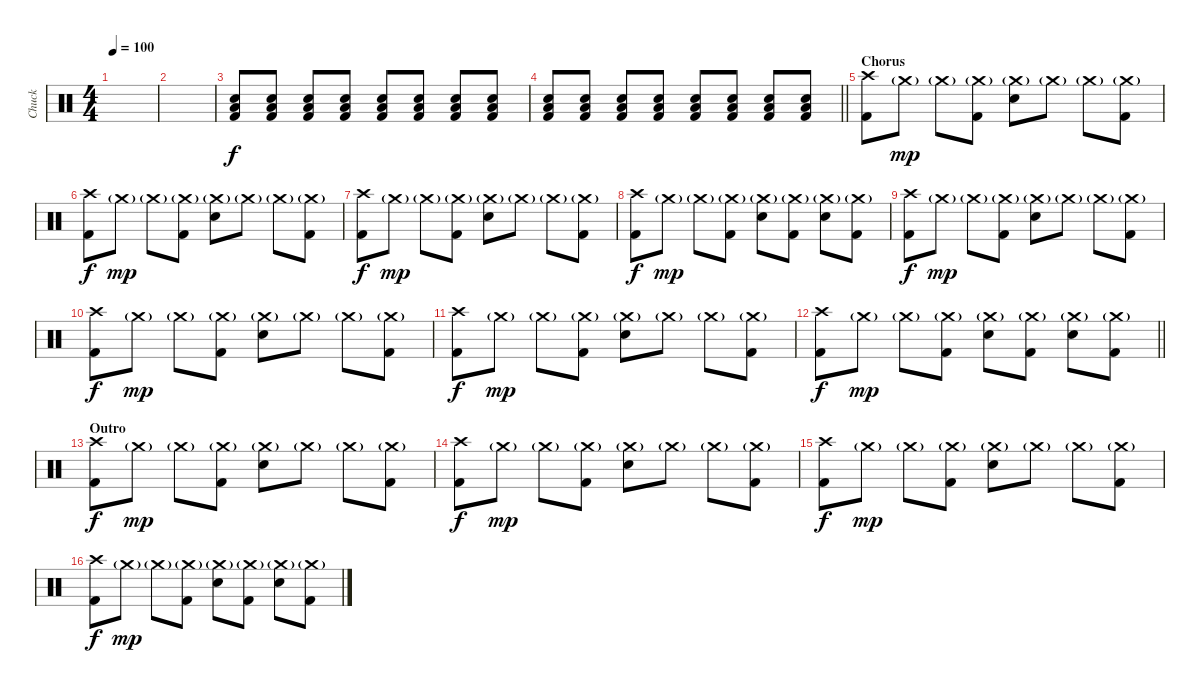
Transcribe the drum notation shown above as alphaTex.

\track ("Chuck" "Chuck") {instrument percussion}
\staff {score}
\articulation defaults
\ts (4 4)
\tempo 100
\clef neutral
\ks c
|
|
("Electric Snare (hit)" "Low Tom (hit)" "Kick (hit) 2").8{dy f} ("Electric Snare (hit)" "Low Tom (hit)" "Kick (hit) 2").8 ("Electric Snare (hit)" "Low Tom (hit)" "Kick (hit) 2").8 ("Electric Snare (hit)" "Low Tom (hit)" "Kick (hit) 2").8 ("Electric Snare (hit)" "Low Tom (hit)" "Kick (hit) 2").8 ("Electric Snare (hit)" "Low Tom (hit)" "Kick (hit) 2").8 ("Electric Snare (hit)" "Low Tom (hit)" "Kick (hit) 2").8 ("Electric Snare (hit)" "Low Tom (hit)" "Kick (hit) 2").8 |
\barLineRight lightlight
("Electric Snare (hit)" "Low Tom (hit)" "Kick (hit) 2").8 ("Electric Snare (hit)" "Low Tom (hit)" "Kick (hit) 2").8 ("Electric Snare (hit)" "Low Tom (hit)" "Kick (hit) 2").8 ("Electric Snare (hit)" "Low Tom (hit)" "Kick (hit) 2").8 ("Electric Snare (hit)" "Low Tom (hit)" "Kick (hit) 2").8 ("Electric Snare (hit)" "Low Tom (hit)" "Kick (hit) 2").8 ("Electric Snare (hit)" "Low Tom (hit)" "Kick (hit) 2").8 ("Electric Snare (hit)" "Low Tom (hit)" "Kick (hit) 2").8 |
\section ("" "Chorus")
("Crash high (hit)" "Kick (hit) 2").8 "Crash medium (hit)"{g}.8{dy mp} "Crash medium (hit)"{g}.8 ("Crash medium (hit)"{g} "Kick (hit) 2").8 ("Crash medium (hit)"{g} "Electric Snare (hit)").8 "Crash medium (hit)"{g}.8 "Crash medium (hit)"{g}.8 ("Crash medium (hit)"{g} "Kick (hit) 2").8 |
("Crash high (hit)" "Kick (hit) 2").8{dy f} "Crash medium (hit)"{g}.8{dy mp} "Crash medium (hit)"{g}.8 ("Crash medium (hit)"{g} "Kick (hit) 2").8 ("Crash medium (hit)"{g} "Electric Snare (hit)").8 "Crash medium (hit)"{g}.8 "Crash medium (hit)"{g}.8 ("Crash medium (hit)"{g} "Kick (hit) 2").8 |
("Crash high (hit)" "Kick (hit) 2").8{dy f} "Crash medium (hit)"{g}.8{dy mp} "Crash medium (hit)"{g}.8 ("Crash medium (hit)"{g} "Kick (hit) 2").8 ("Crash medium (hit)"{g} "Electric Snare (hit)").8 "Crash medium (hit)"{g}.8 "Crash medium (hit)"{g}.8 ("Crash medium (hit)"{g} "Kick (hit) 2").8 |
("Crash high (hit)" "Kick (hit) 2").8{dy f} "Crash medium (hit)"{g}.8{dy mp} "Crash medium (hit)"{g}.8 ("Crash medium (hit)"{g} "Kick (hit) 2").8 ("Crash medium (hit)"{g} "Electric Snare (hit)").8 ("Crash medium (hit)"{g} "Kick (hit) 2").8 ("Crash medium (hit)"{g} "Electric Snare (hit)").8 ("Crash medium (hit)"{g} "Kick (hit) 2").8 |
("Crash high (hit)" "Kick (hit) 2").8{dy f} "Crash medium (hit)"{g}.8{dy mp} "Crash medium (hit)"{g}.8 ("Crash medium (hit)"{g} "Kick (hit) 2").8 ("Crash medium (hit)"{g} "Electric Snare (hit)").8 "Crash medium (hit)"{g}.8 "Crash medium (hit)"{g}.8 ("Crash medium (hit)"{g} "Kick (hit) 2").8 |
("Crash high (hit)" "Kick (hit) 2").8{dy f} "Crash medium (hit)"{g}.8{dy mp} "Crash medium (hit)"{g}.8 ("Crash medium (hit)"{g} "Kick (hit) 2").8 ("Crash medium (hit)"{g} "Electric Snare (hit)").8 "Crash medium (hit)"{g}.8 "Crash medium (hit)"{g}.8 ("Crash medium (hit)"{g} "Kick (hit) 2").8 |
("Crash high (hit)" "Kick (hit) 2").8{dy f} "Crash medium (hit)"{g}.8{dy mp} "Crash medium (hit)"{g}.8 ("Crash medium (hit)"{g} "Kick (hit) 2").8 ("Crash medium (hit)"{g} "Electric Snare (hit)").8 "Crash medium (hit)"{g}.8 "Crash medium (hit)"{g}.8 ("Crash medium (hit)"{g} "Kick (hit) 2").8 |
\barLineRight lightlight
("Crash high (hit)" "Kick (hit) 2").8{dy f} "Crash medium (hit)"{g}.8{dy mp} "Crash medium (hit)"{g}.8 ("Crash medium (hit)"{g} "Kick (hit) 2").8 ("Crash medium (hit)"{g} "Electric Snare (hit)").8 ("Crash medium (hit)"{g} "Kick (hit) 2").8 ("Crash medium (hit)"{g} "Electric Snare (hit)").8 ("Crash medium (hit)"{g} "Kick (hit) 2").8 |
\section ("" "Outro")
("Crash high (hit)" "Kick (hit) 2").8{dy f} "Crash medium (hit)"{g}.8{dy mp} "Crash medium (hit)"{g}.8 ("Crash medium (hit)"{g} "Kick (hit) 2").8 ("Crash medium (hit)"{g} "Electric Snare (hit)").8 "Crash medium (hit)"{g}.8 "Crash medium (hit)"{g}.8 ("Crash medium (hit)"{g} "Kick (hit) 2").8 |
("Crash high (hit)" "Kick (hit) 2").8{dy f} "Crash medium (hit)"{g}.8{dy mp} "Crash medium (hit)"{g}.8 ("Crash medium (hit)"{g} "Kick (hit) 2").8 ("Crash medium (hit)"{g} "Electric Snare (hit)").8 "Crash medium (hit)"{g}.8 "Crash medium (hit)"{g}.8 ("Crash medium (hit)"{g} "Kick (hit) 2").8 |
("Crash high (hit)" "Kick (hit) 2").8{dy f} "Crash medium (hit)"{g}.8{dy mp} "Crash medium (hit)"{g}.8 ("Crash medium (hit)"{g} "Kick (hit) 2").8 ("Crash medium (hit)"{g} "Electric Snare (hit)").8 "Crash medium (hit)"{g}.8 "Crash medium (hit)"{g}.8 ("Crash medium (hit)"{g} "Kick (hit) 2").8 |
("Crash high (hit)" "Kick (hit) 2").8{dy f} "Crash medium (hit)"{g}.8{dy mp} "Crash medium (hit)"{g}.8 ("Crash medium (hit)"{g} "Kick (hit) 2").8 ("Crash medium (hit)"{g} "Electric Snare (hit)").8 ("Crash medium (hit)"{g} "Kick (hit) 2").8 ("Crash medium (hit)"{g} "Electric Snare (hit)").8 ("Crash medium (hit)"{g} "Kick (hit) 2").8
